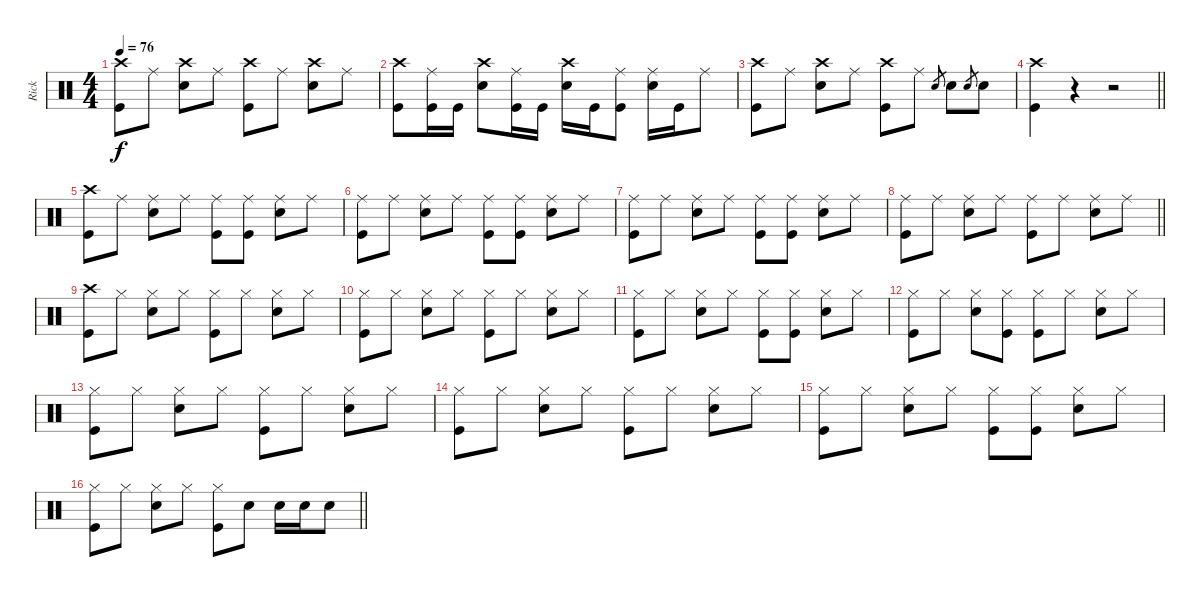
\track ("Rick" "Rick") {instrument percussion}
\staff {score}
\articulation defaults
\ts (4 4)
\tempo 76
\clef neutral
\ks aminor
("Crash high (hit)" "Kick (hit)").8{dy f} "Ride (middle)".8 ("Crash high (hit)" "Snare (hit) 2").8 "Ride (middle)".8 ("Crash high (hit)" "Kick (hit)").8 "Ride (middle)".8 ("Crash high (hit)" "Snare (hit) 2").8 "Ride (middle)".8 |
("Crash high (hit)" "Kick (hit)").8 ("Ride (middle)" "Kick (hit)").16 "Kick (hit)".16 ("Crash high (hit)" "Snare (hit) 2").8 ("Ride (middle)" "Kick (hit)").16 "Kick (hit)".16 ("Crash high (hit)" "Snare (hit) 2").16 "Kick (hit)".16 ("Ride (middle)" "Kick (hit)").8 ("Ride (middle)" "Snare (hit) 2").16 "Kick (hit)".16 "Ride (middle)".8 |
("Crash high (hit)" "Kick (hit)").8 "Ride (middle)".8 ("Crash high (hit)" "Snare (hit) 2").8 "Ride (middle)".8 ("Crash high (hit)" "Kick (hit)").8 "Ride (middle)".8 "Snare (hit) 2".8{gr} "Snare (hit) 2".8 "Snare (hit) 2".8{gr} "Snare (hit) 2".8 |
\barLineRight lightlight
("Crash high (hit)" "Kick (hit)").4 r.4 r.2 |
("Crash high (hit)" "Kick (hit)").8 "Ride (middle)".8 ("Ride (middle)" "Snare (hit) 2").8 "Ride (middle)".8 ("Ride (middle)" "Kick (hit)").8 ("Ride (middle)" "Kick (hit)").8 ("Ride (middle)" "Snare (hit) 2").8 "Ride (middle)".8 |
("Ride (middle)" "Kick (hit)").8 "Ride (middle)".8 ("Ride (middle)" "Snare (hit) 2").8 "Ride (middle)".8 ("Ride (middle)" "Kick (hit)").8 ("Ride (middle)" "Kick (hit)").8 ("Ride (middle)" "Snare (hit) 2").8 "Ride (middle)".8 |
("Ride (middle)" "Kick (hit)").8 "Ride (middle)".8 ("Ride (middle)" "Snare (hit) 2").8 "Ride (middle)".8 ("Ride (middle)" "Kick (hit)").8 ("Ride (middle)" "Kick (hit)").8 ("Ride (middle)" "Snare (hit) 2").8 "Ride (middle)".8 |
\barLineRight lightlight
("Ride (middle)" "Kick (hit)").8 "Ride (middle)".8 ("Ride (middle)" "Snare (hit) 2").8 "Ride (middle)".8 ("Ride (middle)" "Kick (hit)").8 "Ride (middle)".8 ("Ride (middle)" "Snare (hit) 2").8 "Ride (middle)".8 |
("Crash high (hit)" "Kick (hit)").8 "Hi-Hat (closed)".8 ("Hi-Hat (closed)" "Snare (hit) 2").8 "Hi-Hat (closed)".8 ("Hi-Hat (closed)" "Kick (hit)").8 "Hi-Hat (closed)".8 ("Hi-Hat (closed)" "Snare (hit) 2").8 "Hi-Hat (closed)".8 |
("Hi-Hat (closed)" "Kick (hit)").8 "Hi-Hat (closed)".8 ("Hi-Hat (closed)" "Snare (hit) 2").8 "Hi-Hat (closed)".8 ("Hi-Hat (closed)" "Kick (hit)").8 "Hi-Hat (closed)".8 ("Hi-Hat (closed)" "Snare (hit) 2").8 "Hi-Hat (closed)".8 |
("Hi-Hat (closed)" "Kick (hit)").8 "Hi-Hat (closed)".8 ("Hi-Hat (closed)" "Snare (hit) 2").8 "Hi-Hat (closed)".8 ("Hi-Hat (closed)" "Kick (hit)").8 ("Hi-Hat (closed)" "Kick (hit)").8 ("Hi-Hat (closed)" "Snare (hit) 2").8 "Hi-Hat (closed)".8 |
("Hi-Hat (closed)" "Kick (hit)").8 "Hi-Hat (closed)".8 ("Hi-Hat (closed)" "Snare (hit) 2").8 ("Hi-Hat (closed)" "Kick (hit)").8 ("Hi-Hat (closed)" "Kick (hit)").8 "Hi-Hat (closed)".8 ("Hi-Hat (closed)" "Snare (hit) 2").8 "Hi-Hat (closed)".8 |
("Hi-Hat (closed)" "Kick (hit)").8 "Hi-Hat (closed)".8 ("Hi-Hat (closed)" "Snare (hit) 2").8 "Hi-Hat (closed)".8 ("Hi-Hat (closed)" "Kick (hit)").8 "Hi-Hat (closed)".8 ("Hi-Hat (closed)" "Snare (hit) 2").8 "Hi-Hat (closed)".8 |
("Hi-Hat (closed)" "Kick (hit)").8 "Hi-Hat (closed)".8 ("Hi-Hat (closed)" "Snare (hit) 2").8 "Hi-Hat (closed)".8 ("Hi-Hat (closed)" "Kick (hit)").8 "Hi-Hat (closed)".8 ("Hi-Hat (closed)" "Snare (hit) 2").8 "Hi-Hat (closed)".8 |
("Hi-Hat (closed)" "Kick (hit)").8 "Hi-Hat (closed)".8 ("Hi-Hat (closed)" "Snare (hit) 2").8 "Hi-Hat (closed)".8 ("Hi-Hat (closed)" "Kick (hit)").8 ("Hi-Hat (closed)" "Kick (hit)").8 ("Hi-Hat (closed)" "Snare (hit) 2").8 "Hi-Hat (closed)".8 |
\barLineRight lightlight
("Hi-Hat (closed)" "Kick (hit)").8 "Hi-Hat (closed)".8 ("Hi-Hat (closed)" "Snare (hit) 2").8 "Hi-Hat (closed)".8 ("Hi-Hat (closed)" "Kick (hit)").8 "Snare (hit) 2".8 "Snare (hit) 2".16 "Snare (hit) 2".16 "Snare (hit) 2".8
